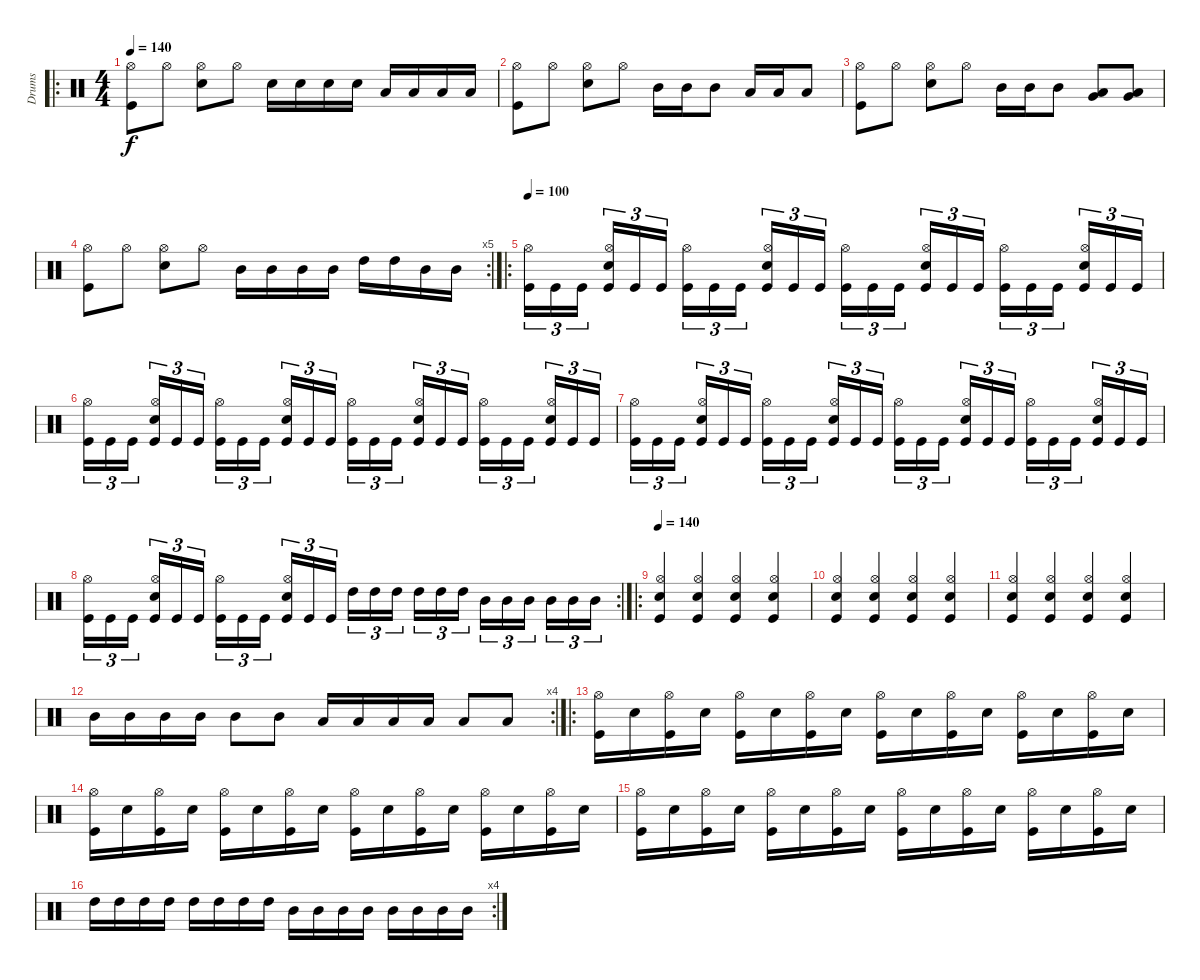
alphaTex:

\track ("Drums" "Drums") {instrument percussion}
\staff {score}
\articulation defaults
\ro
\ts (4 4)
\tempo 140
\clef neutral
\ks c
("Kick (hit)" "Hi-Hat (open)").8{dy f} "Hi-Hat (open)".8 ("Snare (hit) 2" "Hi-Hat (open)").8 "Hi-Hat (open)".8 "Snare (hit) 2".16 "Snare (hit) 2".16 "Snare (hit) 2".16 "Snare (hit) 2".16 "Low Tom (hit)".16 "Low Tom (hit)".16 "Low Tom (hit)".16 "Low Tom (hit)".16 |
("Kick (hit)" "Hi-Hat (open)").8 "Hi-Hat (open)".8 ("Snare (hit) 2" "Hi-Hat (open)").8 "Hi-Hat (open)".8 "Mid Tom (hit)".16 "Mid Tom (hit)".16 "Mid Tom (hit)".8 "Low Tom (hit)".16 "Low Tom (hit)".16 "Low Tom (hit)".8 |
("Kick (hit)" "Hi-Hat (open)").8 "Hi-Hat (open)".8 ("Snare (hit) 2" "Hi-Hat (open)").8 "Hi-Hat (open)".8 "Mid Tom (hit)".16 "Mid Tom (hit)".16 "Mid Tom (hit)".8 ("Low Tom (hit)" "Very Low Tom (hit)").8 ("Low Tom (hit)" "Very Low Tom (hit)").8 |
\rc 5
("Kick (hit)" "Hi-Hat (open)").8 "Hi-Hat (open)".8 ("Snare (hit) 2" "Hi-Hat (open)").8 "Hi-Hat (open)".8 "Mid Tom (hit)".16 "Mid Tom (hit)".16 "Mid Tom (hit)".16 "Mid Tom (hit)".16 "High Tom (hit)".16 "High Tom (hit)".16 "Mid Tom (hit)".16 "Mid Tom (hit)".16 |
\ro
\tempo 100
("Hi-Hat (open)" "Kick (hit)").16{tu (3 2)} "Kick (hit)".16{tu (3 2)} "Kick (hit)".16{tu (3 2) beam splitsecondary} ("Snare (hit) 2" "Hi-Hat (open)" "Kick (hit)").16{tu (3 2)} "Kick (hit)".16{tu (3 2)} "Kick (hit)".16{tu (3 2)} ("Hi-Hat (open)" "Kick (hit)").16{tu (3 2)} "Kick (hit)".16{tu (3 2)} "Kick (hit)".16{tu (3 2) beam splitsecondary} ("Snare (hit) 2" "Hi-Hat (open)" "Kick (hit)").16{tu (3 2)} "Kick (hit)".16{tu (3 2)} "Kick (hit)".16{tu (3 2)} ("Hi-Hat (open)" "Kick (hit)").16{tu (3 2)} "Kick (hit)".16{tu (3 2)} "Kick (hit)".16{tu (3 2) beam splitsecondary} ("Snare (hit) 2" "Hi-Hat (open)" "Kick (hit)").16{tu (3 2)} "Kick (hit)".16{tu (3 2)} "Kick (hit)".16{tu (3 2)} ("Hi-Hat (open)" "Kick (hit)").16{tu (3 2)} "Kick (hit)".16{tu (3 2)} "Kick (hit)".16{tu (3 2) beam splitsecondary} ("Snare (hit) 2" "Hi-Hat (open)" "Kick (hit)").16{tu (3 2)} "Kick (hit)".16{tu (3 2)} "Kick (hit)".16{tu (3 2)} |
("Hi-Hat (open)" "Kick (hit)").16{tu (3 2)} "Kick (hit)".16{tu (3 2)} "Kick (hit)".16{tu (3 2) beam splitsecondary} ("Snare (hit) 2" "Hi-Hat (open)" "Kick (hit)").16{tu (3 2)} "Kick (hit)".16{tu (3 2)} "Kick (hit)".16{tu (3 2)} ("Hi-Hat (open)" "Kick (hit)").16{tu (3 2)} "Kick (hit)".16{tu (3 2)} "Kick (hit)".16{tu (3 2) beam splitsecondary} ("Snare (hit) 2" "Hi-Hat (open)" "Kick (hit)").16{tu (3 2)} "Kick (hit)".16{tu (3 2)} "Kick (hit)".16{tu (3 2)} ("Hi-Hat (open)" "Kick (hit)").16{tu (3 2)} "Kick (hit)".16{tu (3 2)} "Kick (hit)".16{tu (3 2) beam splitsecondary} ("Snare (hit) 2" "Hi-Hat (open)" "Kick (hit)").16{tu (3 2)} "Kick (hit)".16{tu (3 2)} "Kick (hit)".16{tu (3 2)} ("Hi-Hat (open)" "Kick (hit)").16{tu (3 2)} "Kick (hit)".16{tu (3 2)} "Kick (hit)".16{tu (3 2) beam splitsecondary} ("Snare (hit) 2" "Hi-Hat (open)" "Kick (hit)").16{tu (3 2)} "Kick (hit)".16{tu (3 2)} "Kick (hit)".16{tu (3 2)} |
("Hi-Hat (open)" "Kick (hit)").16{tu (3 2)} "Kick (hit)".16{tu (3 2)} "Kick (hit)".16{tu (3 2) beam splitsecondary} ("Snare (hit) 2" "Hi-Hat (open)" "Kick (hit)").16{tu (3 2)} "Kick (hit)".16{tu (3 2)} "Kick (hit)".16{tu (3 2)} ("Hi-Hat (open)" "Kick (hit)").16{tu (3 2)} "Kick (hit)".16{tu (3 2)} "Kick (hit)".16{tu (3 2) beam splitsecondary} ("Snare (hit) 2" "Hi-Hat (open)" "Kick (hit)").16{tu (3 2)} "Kick (hit)".16{tu (3 2)} "Kick (hit)".16{tu (3 2)} ("Hi-Hat (open)" "Kick (hit)").16{tu (3 2)} "Kick (hit)".16{tu (3 2)} "Kick (hit)".16{tu (3 2) beam splitsecondary} ("Snare (hit) 2" "Hi-Hat (open)" "Kick (hit)").16{tu (3 2)} "Kick (hit)".16{tu (3 2)} "Kick (hit)".16{tu (3 2)} ("Hi-Hat (open)" "Kick (hit)").16{tu (3 2)} "Kick (hit)".16{tu (3 2)} "Kick (hit)".16{tu (3 2) beam splitsecondary} ("Snare (hit) 2" "Hi-Hat (open)" "Kick (hit)").16{tu (3 2)} "Kick (hit)".16{tu (3 2)} "Kick (hit)".16{tu (3 2)} |
\rc 2
("Hi-Hat (open)" "Kick (hit)").16{tu (3 2)} "Kick (hit)".16{tu (3 2)} "Kick (hit)".16{tu (3 2) beam splitsecondary} ("Snare (hit) 2" "Hi-Hat (open)" "Kick (hit)").16{tu (3 2)} "Kick (hit)".16{tu (3 2)} "Kick (hit)".16{tu (3 2)} ("Hi-Hat (open)" "Kick (hit)").16{tu (3 2)} "Kick (hit)".16{tu (3 2)} "Kick (hit)".16{tu (3 2) beam splitsecondary} ("Snare (hit) 2" "Hi-Hat (open)" "Kick (hit)").16{tu (3 2)} "Kick (hit)".16{tu (3 2)} "Kick (hit)".16{tu (3 2)} "High Tom (hit)".16{tu (3 2)} "High Tom (hit)".16{tu (3 2)} "High Tom (hit)".16{tu (3 2) beam splitsecondary} "High Tom (hit)".16{tu (3 2)} "High Tom (hit)".16{tu (3 2)} "High Tom (hit)".16{tu (3 2)} "Mid Tom (hit)".16{tu (3 2)} "Mid Tom (hit)".16{tu (3 2)} "Mid Tom (hit)".16{tu (3 2) beam splitsecondary} "Mid Tom (hit)".16{tu (3 2)} "Mid Tom (hit)".16{tu (3 2)} "Mid Tom (hit)".16{tu (3 2)} |
\ro
\tempo 140
("Snare (hit) 2" "Kick (hit)" "Hi-Hat (open)").4 ("Snare (hit) 2" "Kick (hit)" "Hi-Hat (open)").4 ("Snare (hit) 2" "Kick (hit)" "Hi-Hat (open)").4 ("Snare (hit) 2" "Kick (hit)" "Hi-Hat (open)").4 |
("Snare (hit) 2" "Kick (hit)" "Hi-Hat (open)").4 ("Snare (hit) 2" "Kick (hit)" "Hi-Hat (open)").4 ("Snare (hit) 2" "Kick (hit)" "Hi-Hat (open)").4 ("Snare (hit) 2" "Kick (hit)" "Hi-Hat (open)").4 |
("Snare (hit) 2" "Kick (hit)" "Hi-Hat (open)").4 ("Snare (hit) 2" "Kick (hit)" "Hi-Hat (open)").4 ("Snare (hit) 2" "Kick (hit)" "Hi-Hat (open)").4 ("Snare (hit) 2" "Kick (hit)" "Hi-Hat (open)").4 |
\rc 4 "Mid Tom (hit)".16 "Mid Tom (hit)".16 "Mid Tom (hit)".16 "Mid Tom (hit)".16 "Mid Tom (hit)".8 "Mid Tom (hit)".8 "Low Tom (hit)".16 "Low Tom (hit)".16 "Low Tom (hit)".16 "Low Tom (hit)".16 "Low Tom (hit)".8 "Low Tom (hit)".8
|
\ro
("Kick (hit)" "Hi-Hat (open)").16 "Snare (hit) 2".16 ("Kick (hit)" "Hi-Hat (open)").16 "Snare (hit) 2".16 ("Kick (hit)" "Hi-Hat (open)").16 "Snare (hit) 2".16 ("Kick (hit)" "Hi-Hat (open)").16 "Snare (hit) 2".16 ("Kick (hit)" "Hi-Hat (open)").16 "Snare (hit) 2".16 ("Kick (hit)" "Hi-Hat (open)").16 "Snare (hit) 2".16 ("Kick (hit)" "Hi-Hat (open)").16 "Snare (hit) 2".16 ("Kick (hit)" "Hi-Hat (open)").16 "Snare (hit) 2".16 |
("Kick (hit)" "Hi-Hat (open)").16 "Snare (hit) 2".16 ("Kick (hit)" "Hi-Hat (open)").16 "Snare (hit) 2".16 ("Kick (hit)" "Hi-Hat (open)").16 "Snare (hit) 2".16 ("Kick (hit)" "Hi-Hat (open)").16 "Snare (hit) 2".16 ("Kick (hit)" "Hi-Hat (open)").16 "Snare (hit) 2".16 ("Kick (hit)" "Hi-Hat (open)").16 "Snare (hit) 2".16 ("Kick (hit)" "Hi-Hat (open)").16 "Snare (hit) 2".16 ("Kick (hit)" "Hi-Hat (open)").16 "Snare (hit) 2".16 |
("Kick (hit)" "Hi-Hat (open)").16 "Snare (hit) 2".16 ("Kick (hit)" "Hi-Hat (open)").16 "Snare (hit) 2".16 ("Kick (hit)" "Hi-Hat (open)").16 "Snare (hit) 2".16 ("Kick (hit)" "Hi-Hat (open)").16 "Snare (hit) 2".16 ("Kick (hit)" "Hi-Hat (open)").16 "Snare (hit) 2".16 ("Kick (hit)" "Hi-Hat (open)").16 "Snare (hit) 2".16 ("Kick (hit)" "Hi-Hat (open)").16 "Snare (hit) 2".16 ("Kick (hit)" "Hi-Hat (open)").16 "Snare (hit) 2".16 |
\rc 4 "High Tom (hit)".16 "High Tom (hit)".16 "High Tom (hit)".16 "High Tom (hit)".16 "High Tom (hit)".16 "High Tom (hit)".16 "High Tom (hit)".16 "High Tom (hit)".16 "Mid Tom (hit)".16 "Mid Tom (hit)".16 "Mid Tom (hit)".16 "Mid Tom (hit)".16 "Mid Tom (hit)".16 "Mid Tom (hit)".16 "Mid Tom (hit)".16 "Mid Tom (hit)".16
